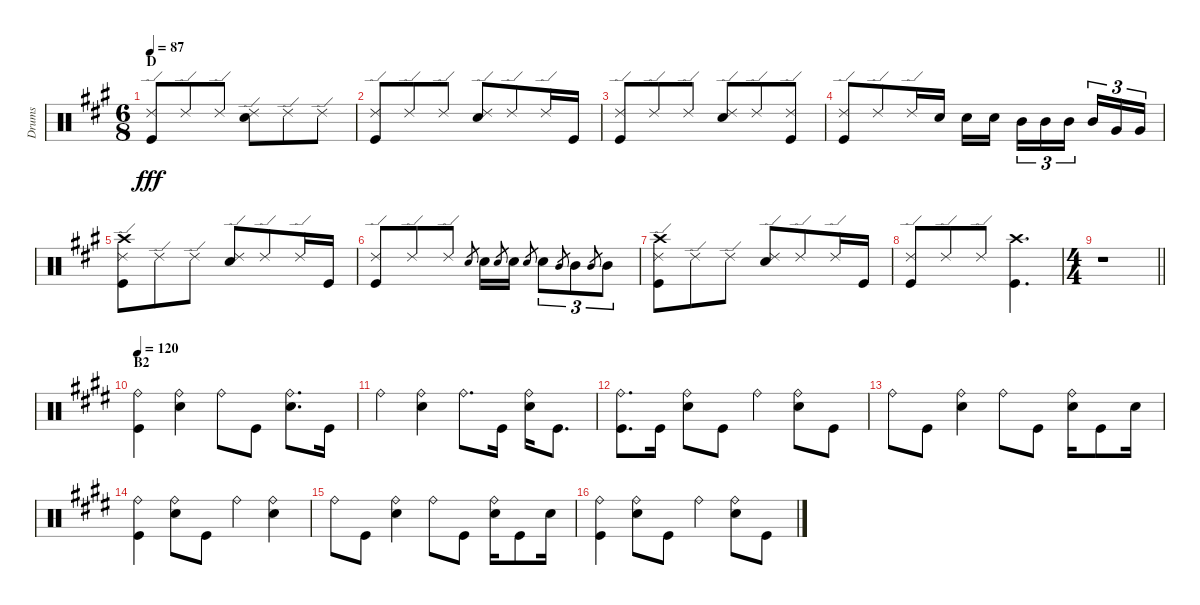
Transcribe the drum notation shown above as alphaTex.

\track ("Drums" "Drums") {instrument percussion}
\staff {score}
\articulation defaults
\ts (6 8)
\section ("" "D")
\tempo 87
\clef neutral
\ks a
("Ride (edge) 2" "Kick (hit)").8{dy fff} "Ride (edge) 2".8 "Ride (edge) 2".8 ("Ride (edge) 2" "Snare (hit) 2").8 "Ride (edge) 2".8 "Ride (edge) 2".8 |
("Ride (edge) 2" "Kick (hit)").8 "Ride (edge) 2".8 "Ride (edge) 2".8 ("Ride (edge) 2" "Snare (hit) 2").8 "Ride (edge) 2".8 "Ride (edge) 2".16 "Kick (hit)".16 |
("Ride (edge) 2" "Kick (hit)").8 "Ride (edge) 2".8 "Ride (edge) 2".8 ("Ride (edge) 2" "Snare (hit) 2").8 "Ride (edge) 2".8 ("Ride (edge) 2" "Kick (hit)").8 |
("Ride (edge) 2" "Kick (hit)").8 "Ride (edge) 2".8 "Ride (edge) 2".16 "Snare (hit) 2".16 "Snare (hit) 2".16 "Snare (hit) 2".16 "Mid Tom (hit)".16{tu (3 2)} "Mid Tom (hit)".16{tu (3 2)} "Mid Tom (hit)".16{tu (3 2)} "Mid Tom (hit)".16{tu (3 2)} "Very Low Tom (hit)".16{tu (3 2)} "Very Low Tom (hit)".16{tu (3 2)} |
("Ride (edge) 2" "Crash high (hit)" "Kick (hit)").8 "Ride (edge) 2".8 "Ride (edge) 2".8 ("Ride (edge) 2" "Snare (hit) 2").8 "Ride (edge) 2".8 "Ride (edge) 2".16 "Kick (hit)".16 |
("Ride (edge) 2" "Kick (hit)").8 "Ride (edge) 2".8 "Ride (edge) 2".8 "Snare (hit) 2".8{gr} "Snare (hit) 2".16 "Snare (hit) 2".8{gr} "Snare (hit) 2".16 "Snare (hit) 2".8{gr} "Snare (hit) 2".8{tu (3 2)} "Mid Tom (hit)".8{gr} "Mid Tom (hit)".8{tu (3 2)} "Mid Tom (hit)".8{gr} "Mid Tom (hit)".8{tu (3 2)} |
("Ride (edge) 2" "Crash high (hit)" "Kick (hit)").8 "Ride (edge) 2".8 "Ride (edge) 2".8 ("Ride (edge) 2" "Snare (hit) 2").8 "Ride (edge) 2".8 "Ride (edge) 2".16 "Kick (hit)".16 |
("Ride (edge) 2" "Kick (hit)").8 "Ride (edge) 2".8 "Ride (edge) 2".8 ("Crash high (hit)" "Kick (hit)").4{d} |
\ts (4 4)
\barLineRight lightlight
r.1 |
\section ("" "B2")
\tempo 120
\ks e
("Ride (bell)" "Kick (hit)").4 ("Ride (bell)" "Snare (hit) 2").4 "Ride (bell)".8 "Kick (hit)".8 ("Ride (bell)" "Snare (hit) 2").8{d} "Kick (hit)".16 |
"Ride (bell)".4 ("Ride (bell)" "Snare (hit) 2").4 "Ride (bell)".8{d} "Kick (hit)".16 ("Ride (bell)" "Snare (hit) 2").16 "Kick (hit)".8{d} |
("Ride (bell)" "Kick (hit)").8{d} "Kick (hit)".16 ("Ride (bell)" "Snare (hit) 2").8 "Kick (hit)".8 "Ride (bell)".4 ("Ride (bell)" "Snare (hit) 2").8 "Kick (hit)".8 |
"Ride (bell)".8 "Kick (hit)".8 ("Ride (bell)" "Snare (hit) 2").4 "Ride (bell)".8 "Kick (hit)".8 ("Ride (bell)" "Snare (hit) 2").16 "Kick (hit)".8 "Snare (hit) 2".16 |
("Ride (bell)" "Kick (hit)").4 ("Ride (bell)" "Snare (hit) 2").8 "Kick (hit)".8 "Ride (bell)".4 ("Ride (bell)" "Snare (hit) 2").4 |
"Ride (bell)".8 "Kick (hit)".8 ("Ride (bell)" "Snare (hit) 2").4 "Ride (bell)".8 "Kick (hit)".8 ("Ride (bell)" "Snare (hit) 2").16 "Kick (hit)".8 "Snare (hit) 2".16 |
("Ride (bell)" "Kick (hit)").4 ("Ride (bell)" "Snare (hit) 2").8 "Kick (hit)".8 "Ride (bell)".4 ("Ride (bell)" "Snare (hit) 2").8 "Kick (hit)".8
